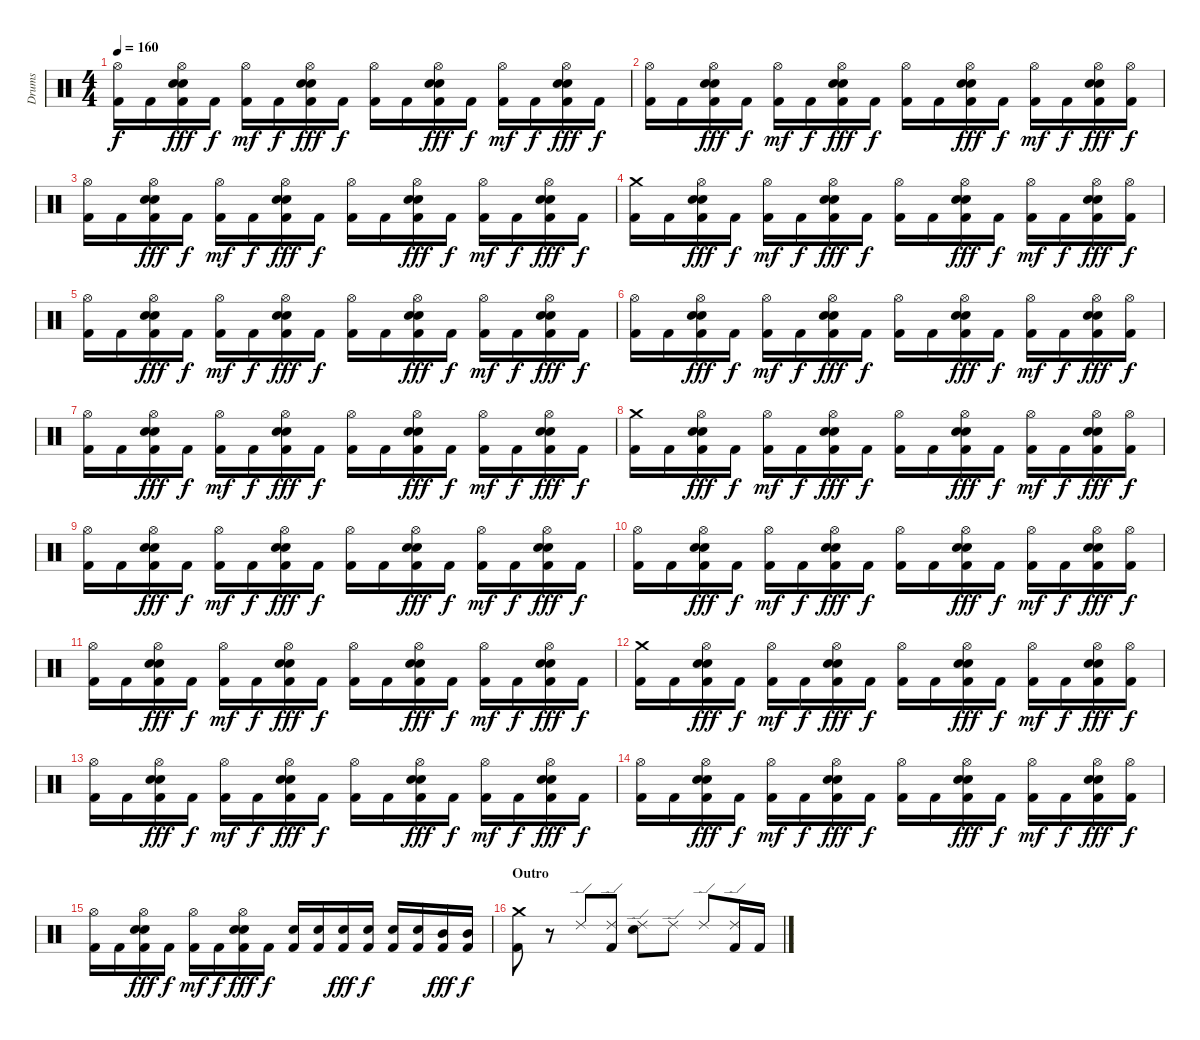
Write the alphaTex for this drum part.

\track ("Drums" "Drums") {instrument percussion}
\staff {score}
\articulation defaults
\ts (4 4)
\tempo 160
\clef neutral
\ks c
("Kick (hit) 2" "Hi-Hat (open)").16{dy f} "Kick (hit) 2".16 ("Kick (hit) 2" "Electric Snare (hit)" "Hi-Hat (open)" "Snare (hit) 2").16{dy fff} "Kick (hit) 2".16{dy f} ("Kick (hit) 2" "Hi-Hat (open)").16{dy mf} "Kick (hit) 2".16{dy f} ("Kick (hit) 2" "Electric Snare (hit)" "Hi-Hat (open)" "Snare (hit) 2").16{dy fff} "Kick (hit) 2".16{dy f} ("Kick (hit) 2" "Hi-Hat (open)").16 "Kick (hit) 2".16 ("Kick (hit) 2" "Electric Snare (hit)" "Hi-Hat (open)" "Electric Snare (hit)").16{dy fff} "Kick (hit) 2".16{dy f} ("Kick (hit) 2" "Hi-Hat (open)").16{dy mf} "Kick (hit) 2".16{dy f} ("Kick (hit) 2" "Electric Snare (hit)" "Hi-Hat (open)" "Electric Snare (hit)").16{dy fff} "Kick (hit) 2".16{dy f} |
("Kick (hit) 2" "Hi-Hat (open)").16 "Kick (hit) 2".16 ("Kick (hit) 2" "Electric Snare (hit)" "Hi-Hat (open)" "Snare (hit) 2").16{dy fff} "Kick (hit) 2".16{dy f} ("Kick (hit) 2" "Hi-Hat (open)").16{dy mf} "Kick (hit) 2".16{dy f} ("Kick (hit) 2" "Electric Snare (hit)" "Hi-Hat (open)" "Snare (hit) 2").16{dy fff} "Kick (hit) 2".16{dy f} ("Kick (hit) 2" "Hi-Hat (open)").16 "Kick (hit) 2".16 ("Kick (hit) 2" "Electric Snare (hit)" "Hi-Hat (open)" "Electric Snare (hit)").16{dy fff} "Kick (hit) 2".16{dy f} ("Kick (hit) 2" "Hi-Hat (open)").16{dy mf} "Kick (hit) 2".16{dy f} ("Kick (hit) 2" "Electric Snare (hit)" "Hi-Hat (open)" "Electric Snare (hit)").16{dy fff} ("Kick (hit) 2" "Hi-Hat (open)").16{dy f} |
("Kick (hit) 2" "Hi-Hat (open)").16 "Kick (hit) 2".16 ("Kick (hit) 2" "Electric Snare (hit)" "Hi-Hat (open)" "Snare (hit) 2").16{dy fff} "Kick (hit) 2".16{dy f} ("Kick (hit) 2" "Hi-Hat (open)").16{dy mf} "Kick (hit) 2".16{dy f} ("Kick (hit) 2" "Electric Snare (hit)" "Hi-Hat (open)" "Snare (hit) 2").16{dy fff} "Kick (hit) 2".16{dy f} ("Kick (hit) 2" "Hi-Hat (open)").16 "Kick (hit) 2".16 ("Kick (hit) 2" "Electric Snare (hit)" "Hi-Hat (open)" "Electric Snare (hit)").16{dy fff} "Kick (hit) 2".16{dy f} ("Kick (hit) 2" "Hi-Hat (open)").16{dy mf} "Kick (hit) 2".16{dy f} ("Kick (hit) 2" "Electric Snare (hit)" "Hi-Hat (open)" "Electric Snare (hit)").16{dy fff} "Kick (hit) 2".16{dy f} |
("Kick (hit) 2" "Crash medium (hit)").16 "Kick (hit) 2".16 ("Kick (hit) 2" "Electric Snare (hit)" "Hi-Hat (open)" "Snare (hit) 2").16{dy fff} "Kick (hit) 2".16{dy f} ("Kick (hit) 2" "Hi-Hat (open)").16{dy mf} "Kick (hit) 2".16{dy f} ("Kick (hit) 2" "Electric Snare (hit)" "Hi-Hat (open)" "Snare (hit) 2").16{dy fff} "Kick (hit) 2".16{dy f} ("Kick (hit) 2" "Hi-Hat (open)").16 "Kick (hit) 2".16 ("Kick (hit) 2" "Electric Snare (hit)" "Hi-Hat (open)" "Electric Snare (hit)").16{dy fff} "Kick (hit) 2".16{dy f} ("Kick (hit) 2" "Hi-Hat (open)").16{dy mf} "Kick (hit) 2".16{dy f} ("Kick (hit) 2" "Electric Snare (hit)" "Hi-Hat (open)" "Electric Snare (hit)").16{dy fff} ("Kick (hit) 2" "Hi-Hat (open)").16{dy f} |
("Kick (hit) 2" "Hi-Hat (open)").16 "Kick (hit) 2".16 ("Kick (hit) 2" "Electric Snare (hit)" "Hi-Hat (open)" "Snare (hit) 2").16{dy fff} "Kick (hit) 2".16{dy f} ("Kick (hit) 2" "Hi-Hat (open)").16{dy mf} "Kick (hit) 2".16{dy f} ("Kick (hit) 2" "Electric Snare (hit)" "Hi-Hat (open)" "Snare (hit) 2").16{dy fff} "Kick (hit) 2".16{dy f} ("Kick (hit) 2" "Hi-Hat (open)").16 "Kick (hit) 2".16 ("Kick (hit) 2" "Electric Snare (hit)" "Hi-Hat (open)" "Electric Snare (hit)").16{dy fff} "Kick (hit) 2".16{dy f} ("Kick (hit) 2" "Hi-Hat (open)").16{dy mf} "Kick (hit) 2".16{dy f} ("Kick (hit) 2" "Electric Snare (hit)" "Hi-Hat (open)" "Electric Snare (hit)").16{dy fff} "Kick (hit) 2".16{dy f} |
("Kick (hit) 2" "Hi-Hat (open)").16 "Kick (hit) 2".16 ("Kick (hit) 2" "Electric Snare (hit)" "Hi-Hat (open)" "Snare (hit) 2").16{dy fff} "Kick (hit) 2".16{dy f} ("Kick (hit) 2" "Hi-Hat (open)").16{dy mf} "Kick (hit) 2".16{dy f} ("Kick (hit) 2" "Electric Snare (hit)" "Hi-Hat (open)" "Snare (hit) 2").16{dy fff} "Kick (hit) 2".16{dy f} ("Kick (hit) 2" "Hi-Hat (open)").16 "Kick (hit) 2".16 ("Kick (hit) 2" "Electric Snare (hit)" "Hi-Hat (open)" "Electric Snare (hit)").16{dy fff} "Kick (hit) 2".16{dy f} ("Kick (hit) 2" "Hi-Hat (open)").16{dy mf} "Kick (hit) 2".16{dy f} ("Kick (hit) 2" "Electric Snare (hit)" "Hi-Hat (open)" "Electric Snare (hit)").16{dy fff} ("Kick (hit) 2" "Hi-Hat (open)").16{dy f} |
("Kick (hit) 2" "Hi-Hat (open)").16 "Kick (hit) 2".16 ("Kick (hit) 2" "Electric Snare (hit)" "Hi-Hat (open)" "Snare (hit) 2").16{dy fff} "Kick (hit) 2".16{dy f} ("Kick (hit) 2" "Hi-Hat (open)").16{dy mf} "Kick (hit) 2".16{dy f} ("Kick (hit) 2" "Electric Snare (hit)" "Hi-Hat (open)" "Snare (hit) 2").16{dy fff} "Kick (hit) 2".16{dy f} ("Kick (hit) 2" "Hi-Hat (open)").16 "Kick (hit) 2".16 ("Kick (hit) 2" "Electric Snare (hit)" "Hi-Hat (open)" "Electric Snare (hit)").16{dy fff} "Kick (hit) 2".16{dy f} ("Kick (hit) 2" "Hi-Hat (open)").16{dy mf} "Kick (hit) 2".16{dy f} ("Kick (hit) 2" "Electric Snare (hit)" "Hi-Hat (open)" "Electric Snare (hit)").16{dy fff} "Kick (hit) 2".16{dy f} |
("Kick (hit) 2" "Crash medium (hit)").16 "Kick (hit) 2".16 ("Kick (hit) 2" "Electric Snare (hit)" "Hi-Hat (open)" "Snare (hit) 2").16{dy fff} "Kick (hit) 2".16{dy f} ("Kick (hit) 2" "Hi-Hat (open)").16{dy mf} "Kick (hit) 2".16{dy f} ("Kick (hit) 2" "Electric Snare (hit)" "Hi-Hat (open)" "Snare (hit) 2").16{dy fff} "Kick (hit) 2".16{dy f} ("Kick (hit) 2" "Hi-Hat (open)").16 "Kick (hit) 2".16 ("Kick (hit) 2" "Electric Snare (hit)" "Hi-Hat (open)" "Electric Snare (hit)").16{dy fff} "Kick (hit) 2".16{dy f} ("Kick (hit) 2" "Hi-Hat (open)").16{dy mf} "Kick (hit) 2".16{dy f} ("Kick (hit) 2" "Electric Snare (hit)" "Hi-Hat (open)" "Electric Snare (hit)").16{dy fff} ("Kick (hit) 2" "Hi-Hat (open)").16{dy f} |
("Kick (hit) 2" "Hi-Hat (open)").16 "Kick (hit) 2".16 ("Kick (hit) 2" "Electric Snare (hit)" "Hi-Hat (open)" "Snare (hit) 2").16{dy fff} "Kick (hit) 2".16{dy f} ("Kick (hit) 2" "Hi-Hat (open)").16{dy mf} "Kick (hit) 2".16{dy f} ("Kick (hit) 2" "Electric Snare (hit)" "Hi-Hat (open)" "Snare (hit) 2").16{dy fff} "Kick (hit) 2".16{dy f} ("Kick (hit) 2" "Hi-Hat (open)").16 "Kick (hit) 2".16 ("Kick (hit) 2" "Electric Snare (hit)" "Hi-Hat (open)" "Electric Snare (hit)").16{dy fff} "Kick (hit) 2".16{dy f} ("Kick (hit) 2" "Hi-Hat (open)").16{dy mf} "Kick (hit) 2".16{dy f} ("Kick (hit) 2" "Electric Snare (hit)" "Hi-Hat (open)" "Electric Snare (hit)").16{dy fff} "Kick (hit) 2".16{dy f} |
("Kick (hit) 2" "Hi-Hat (open)").16 "Kick (hit) 2".16 ("Kick (hit) 2" "Electric Snare (hit)" "Hi-Hat (open)" "Snare (hit) 2").16{dy fff} "Kick (hit) 2".16{dy f} ("Kick (hit) 2" "Hi-Hat (open)").16{dy mf} "Kick (hit) 2".16{dy f} ("Kick (hit) 2" "Electric Snare (hit)" "Hi-Hat (open)" "Snare (hit) 2").16{dy fff} "Kick (hit) 2".16{dy f} ("Kick (hit) 2" "Hi-Hat (open)").16 "Kick (hit) 2".16 ("Kick (hit) 2" "Electric Snare (hit)" "Hi-Hat (open)" "Electric Snare (hit)").16{dy fff} "Kick (hit) 2".16{dy f} ("Kick (hit) 2" "Hi-Hat (open)").16{dy mf} "Kick (hit) 2".16{dy f} ("Kick (hit) 2" "Electric Snare (hit)" "Hi-Hat (open)" "Electric Snare (hit)").16{dy fff} ("Kick (hit) 2" "Hi-Hat (open)").16{dy f} |
("Kick (hit) 2" "Hi-Hat (open)").16 "Kick (hit) 2".16 ("Kick (hit) 2" "Electric Snare (hit)" "Hi-Hat (open)" "Snare (hit) 2").16{dy fff} "Kick (hit) 2".16{dy f} ("Kick (hit) 2" "Hi-Hat (open)").16{dy mf} "Kick (hit) 2".16{dy f} ("Kick (hit) 2" "Electric Snare (hit)" "Hi-Hat (open)" "Snare (hit) 2").16{dy fff} "Kick (hit) 2".16{dy f} ("Kick (hit) 2" "Hi-Hat (open)").16 "Kick (hit) 2".16 ("Kick (hit) 2" "Electric Snare (hit)" "Hi-Hat (open)" "Electric Snare (hit)").16{dy fff} "Kick (hit) 2".16{dy f} ("Kick (hit) 2" "Hi-Hat (open)").16{dy mf} "Kick (hit) 2".16{dy f} ("Kick (hit) 2" "Electric Snare (hit)" "Hi-Hat (open)" "Electric Snare (hit)").16{dy fff} "Kick (hit) 2".16{dy f} |
("Kick (hit) 2" "Crash medium (hit)").16 "Kick (hit) 2".16 ("Kick (hit) 2" "Electric Snare (hit)" "Hi-Hat (open)" "Snare (hit) 2").16{dy fff} "Kick (hit) 2".16{dy f} ("Kick (hit) 2" "Hi-Hat (open)").16{dy mf} "Kick (hit) 2".16{dy f} ("Kick (hit) 2" "Electric Snare (hit)" "Hi-Hat (open)" "Snare (hit) 2").16{dy fff} "Kick (hit) 2".16{dy f} ("Kick (hit) 2" "Hi-Hat (open)").16 "Kick (hit) 2".16 ("Kick (hit) 2" "Electric Snare (hit)" "Hi-Hat (open)" "Electric Snare (hit)").16{dy fff} "Kick (hit) 2".16{dy f} ("Kick (hit) 2" "Hi-Hat (open)").16{dy mf} "Kick (hit) 2".16{dy f} ("Kick (hit) 2" "Electric Snare (hit)" "Hi-Hat (open)" "Electric Snare (hit)").16{dy fff} ("Kick (hit) 2" "Hi-Hat (open)").16{dy f} |
("Kick (hit) 2" "Hi-Hat (open)").16 "Kick (hit) 2".16 ("Kick (hit) 2" "Electric Snare (hit)" "Hi-Hat (open)" "Snare (hit) 2").16{dy fff} "Kick (hit) 2".16{dy f} ("Kick (hit) 2" "Hi-Hat (open)").16{dy mf} "Kick (hit) 2".16{dy f} ("Kick (hit) 2" "Electric Snare (hit)" "Hi-Hat (open)" "Snare (hit) 2").16{dy fff} "Kick (hit) 2".16{dy f} ("Kick (hit) 2" "Hi-Hat (open)").16 "Kick (hit) 2".16 ("Kick (hit) 2" "Electric Snare (hit)" "Hi-Hat (open)" "Electric Snare (hit)").16{dy fff} "Kick (hit) 2".16{dy f} ("Kick (hit) 2" "Hi-Hat (open)").16{dy mf} "Kick (hit) 2".16{dy f} ("Kick (hit) 2" "Electric Snare (hit)" "Hi-Hat (open)" "Electric Snare (hit)").16{dy fff} "Kick (hit) 2".16{dy f} |
("Kick (hit) 2" "Hi-Hat (open)").16 "Kick (hit) 2".16 ("Kick (hit) 2" "Electric Snare (hit)" "Hi-Hat (open)" "Snare (hit) 2").16{dy fff} "Kick (hit) 2".16{dy f} ("Kick (hit) 2" "Hi-Hat (open)").16{dy mf} "Kick (hit) 2".16{dy f} ("Kick (hit) 2" "Electric Snare (hit)" "Hi-Hat (open)" "Snare (hit) 2").16{dy fff} "Kick (hit) 2".16{dy f} ("Kick (hit) 2" "Hi-Hat (open)").16 "Kick (hit) 2".16 ("Kick (hit) 2" "Electric Snare (hit)" "Hi-Hat (open)" "Electric Snare (hit)").16{dy fff} "Kick (hit) 2".16{dy f} ("Kick (hit) 2" "Hi-Hat (open)").16{dy mf} "Kick (hit) 2".16{dy f} ("Kick (hit) 2" "Electric Snare (hit)" "Hi-Hat (open)" "Electric Snare (hit)").16{dy fff} ("Kick (hit) 2" "Hi-Hat (open)").16{dy f} |
("Kick (hit) 2" "Hi-Hat (open)").16 "Kick (hit) 2".16 ("Kick (hit) 2" "Electric Snare (hit)" "Hi-Hat (open)" "Snare (hit) 2").16{dy fff} "Kick (hit) 2".16{dy f} ("Kick (hit) 2" "Hi-Hat (open)").16{dy mf} "Kick (hit) 2".16{dy f} ("Kick (hit) 2" "Electric Snare (hit)" "Hi-Hat (open)" "Snare (hit) 2").16{dy fff} "Kick (hit) 2".16{dy f} ("Kick (hit) 2" "Electric Snare (hit)").16 ("Kick (hit) 2" "Electric Snare (hit)").16 ("Kick (hit) 2" "Snare (hit) 2").16{dy fff} ("Kick (hit) 2" "Snare (hit) 2").16{dy f} ("Kick (hit) 2" "Electric Snare (hit)").16 ("Kick (hit) 2" "Electric Snare (hit)").16 ("Kick (hit) 2" "Mid Tom (hit)").16{dy fff} ("Kick (hit) 2" "Mid Tom (hit)").16{dy f} |
\section ("" "Outro")
("Kick (hit) 2" "Crash medium (hit)").8 r.8 "Ride (edge) 2".8 ("Kick (hit) 2" "Ride (edge) 2").8 ("Electric Snare (hit)" "Ride (edge) 2").8 "Ride (edge) 2".8 "Ride (edge) 2".8 ("Kick (hit) 2" "Ride (edge) 2").16 "Kick (hit) 2".16
